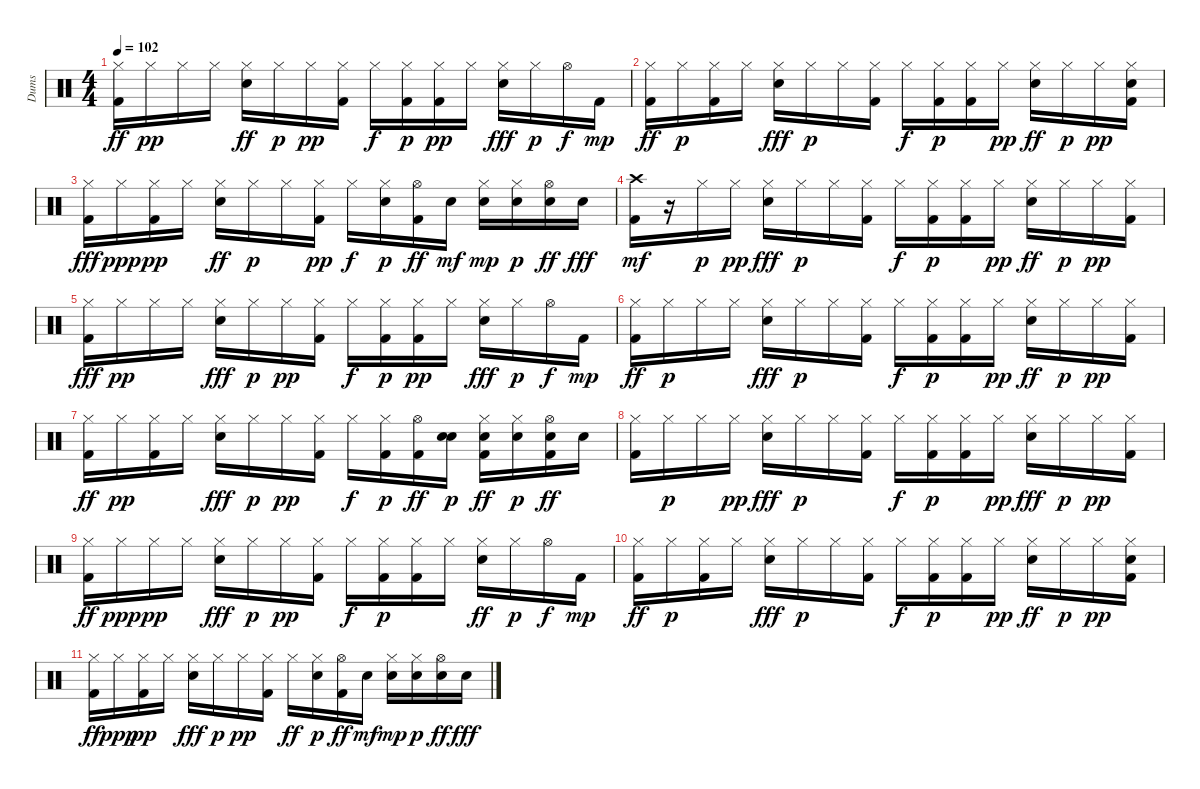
\track ("Dums" "Dums") {instrument percussion}
\staff {score}
\articulation defaults
\ts (4 4)
\tempo 102
\clef neutral
\ks c
("Kick (hit) 2" "Hi-Hat (closed)").16{dy ff} "Hi-Hat (closed)".16{dy pp} "Hi-Hat (closed)".16 "Hi-Hat (closed)".16 ("Electric Snare (hit)" "Hi-Hat (closed)").16{dy ff} "Hi-Hat (closed)".16{dy p} "Hi-Hat (closed)".16{dy pp} ("Kick (hit) 2" "Hi-Hat (closed)").16 "Hi-Hat (closed)".16{dy f} ("Kick (hit) 2" "Hi-Hat (closed)").16{dy p} ("Kick (hit) 2" "Hi-Hat (closed)").16{dy pp} "Hi-Hat (closed)".16 ("Electric Snare (hit)" "Hi-Hat (closed)").16{dy fff} "Hi-Hat (closed)".16{dy p} "Hi-Hat (open)".16{dy f} "Kick (hit) 2".16{dy mp} |
("Kick (hit) 2" "Hi-Hat (closed)").16{dy ff} "Hi-Hat (closed)".16{dy p} ("Kick (hit) 2" "Hi-Hat (closed)").16 "Hi-Hat (closed)".16 ("Electric Snare (hit)" "Hi-Hat (closed)").16{dy fff} "Hi-Hat (closed)".16{dy p} "Hi-Hat (closed)".16 ("Kick (hit) 2" "Hi-Hat (closed)").16 "Hi-Hat (closed)".16{dy f} ("Kick (hit) 2" "Hi-Hat (closed)").16{dy p} ("Kick (hit) 2" "Hi-Hat (closed)").16 "Hi-Hat (closed)".16{dy pp} ("Electric Snare (hit)" "Hi-Hat (closed)").16{dy ff} "Hi-Hat (closed)".16{dy p} "Hi-Hat (closed)".16{dy pp} ("Kick (hit) 2" "Electric Snare (hit)" "Hi-Hat (closed)").16 |
("Kick (hit) 2" "Hi-Hat (closed)").16{dy fff} "Hi-Hat (closed)".16{dy ppp} ("Kick (hit) 2" "Hi-Hat (closed)").16{dy pp} "Hi-Hat (closed)".16 ("Electric Snare (hit)" "Hi-Hat (closed)").16{dy ff} "Hi-Hat (closed)".16{dy p} "Hi-Hat (closed)".16 ("Kick (hit) 2" "Hi-Hat (closed)").16{dy pp} "Hi-Hat (closed)".16{dy f} ("Electric Snare (hit)" "Hi-Hat (closed)").16{dy p} ("Kick (hit) 2" "Hi-Hat (open)").16{dy ff} "Electric Snare (hit)".16{dy mf} ("Electric Snare (hit)" "Hi-Hat (closed)").16{dy mp} ("Electric Snare (hit)" "Hi-Hat (closed)").16{dy p} ("Electric Snare (hit)" "Hi-Hat (open)").16{dy ff} "Electric Snare (hit)".16{dy fff} |
("Kick (hit) 2" "Crash high (hit)").16{dy mf} r.16 "Hi-Hat (closed)".16{dy p} "Hi-Hat (closed)".16{dy pp} ("Electric Snare (hit)" "Hi-Hat (closed)").16{dy fff} "Hi-Hat (closed)".16{dy p} "Hi-Hat (closed)".16 ("Kick (hit) 2" "Hi-Hat (closed)").16 "Hi-Hat (closed)".16{dy f} ("Kick (hit) 2" "Hi-Hat (closed)").16{dy p} ("Kick (hit) 2" "Hi-Hat (closed)").16 "Hi-Hat (closed)".16{dy pp} ("Electric Snare (hit)" "Hi-Hat (closed)").16{dy ff} "Hi-Hat (closed)".16{dy p} "Hi-Hat (closed)".16{dy pp} ("Kick (hit) 2" "Hi-Hat (closed)").16 |
("Kick (hit) 2" "Hi-Hat (closed)").16{dy fff} "Hi-Hat (closed)".16{dy pp} "Hi-Hat (closed)".16 "Hi-Hat (closed)".16 ("Electric Snare (hit)" "Hi-Hat (closed)").16{dy fff} "Hi-Hat (closed)".16{dy p} "Hi-Hat (closed)".16{dy pp} ("Kick (hit) 2" "Hi-Hat (closed)").16 "Hi-Hat (closed)".16{dy f} ("Kick (hit) 2" "Hi-Hat (closed)").16{dy p} ("Kick (hit) 2" "Hi-Hat (closed)").16{dy pp} "Hi-Hat (closed)".16 ("Electric Snare (hit)" "Hi-Hat (closed)").16{dy fff} "Hi-Hat (closed)".16{dy p} "Hi-Hat (open)".16{dy f} "Kick (hit) 2".16{dy mp} |
("Kick (hit) 2" "Hi-Hat (closed)").16{dy ff} "Hi-Hat (closed)".16{dy p} "Hi-Hat (closed)".16 "Hi-Hat (closed)".16 ("Electric Snare (hit)" "Hi-Hat (closed)").16{dy fff} "Hi-Hat (closed)".16{dy p} "Hi-Hat (closed)".16 ("Kick (hit) 2" "Hi-Hat (closed)").16 "Hi-Hat (closed)".16{dy f} ("Kick (hit) 2" "Hi-Hat (closed)").16{dy p} ("Kick (hit) 2" "Hi-Hat (closed)").16 "Hi-Hat (closed)".16{dy pp} ("Electric Snare (hit)" "Hi-Hat (closed)").16{dy ff} "Hi-Hat (closed)".16{dy p} "Hi-Hat (closed)".16{dy pp} ("Kick (hit) 2" "Hi-Hat (closed)").16 |
("Kick (hit) 2" "Hi-Hat (closed)").16{dy ff} "Hi-Hat (closed)".16{dy pp} ("Kick (hit) 2" "Hi-Hat (closed)").16 "Hi-Hat (closed)".16 ("Electric Snare (hit)" "Hi-Hat (closed)").16{dy fff} "Hi-Hat (closed)".16{dy p} "Hi-Hat (closed)".16{dy pp} ("Kick (hit) 2" "Hi-Hat (closed)").16 "Hi-Hat (closed)".16{dy f} ("Kick (hit) 2" "Hi-Hat (closed)").16{dy p} ("Kick (hit) 2" "Hi-Hat (open)").16{dy ff} ("Electric Snare (hit)" "Electric Snare (hit)").16{dy p} ("Kick (hit) 2" "Electric Snare (hit)" "Hi-Hat (closed)").16{dy ff} ("Electric Snare (hit)" "Hi-Hat (closed)").16{dy p} ("Kick (hit) 2" "Electric Snare (hit)" "Hi-Hat (open)").16{dy ff} "Electric Snare (hit)".16 |
("Kick (hit) 2" "Hi-Hat (closed)").16 "Hi-Hat (closed)".16{dy p} "Hi-Hat (closed)".16 "Hi-Hat (closed)".16{dy pp} ("Electric Snare (hit)" "Hi-Hat (closed)").16{dy fff} "Hi-Hat (closed)".16{dy p} "Hi-Hat (closed)".16 ("Kick (hit) 2" "Hi-Hat (closed)").16 "Hi-Hat (closed)".16{dy f} ("Kick (hit) 2" "Hi-Hat (closed)").16{dy p} ("Kick (hit) 2" "Hi-Hat (closed)").16 "Hi-Hat (closed)".16{dy pp} ("Electric Snare (hit)" "Hi-Hat (closed)").16{dy fff} "Hi-Hat (closed)".16{dy p} "Hi-Hat (closed)".16{dy pp} ("Kick (hit) 2" "Hi-Hat (closed)").16 |
("Kick (hit) 2" "Hi-Hat (closed)").16{dy ff} "Hi-Hat (closed)".16{dy ppp} "Hi-Hat (closed)".16{dy pp} "Hi-Hat (closed)".16 ("Electric Snare (hit)" "Hi-Hat (closed)").16{dy fff} "Hi-Hat (closed)".16{dy p} "Hi-Hat (closed)".16{dy pp} ("Kick (hit) 2" "Hi-Hat (closed)").16 "Hi-Hat (closed)".16{dy f} ("Kick (hit) 2" "Hi-Hat (closed)").16{dy p} ("Kick (hit) 2" "Hi-Hat (closed)").16 "Hi-Hat (closed)".16 ("Electric Snare (hit)" "Hi-Hat (closed)").16{dy ff} "Hi-Hat (closed)".16{dy p} "Hi-Hat (open)".16{dy f} "Kick (hit) 2".16{dy mp} |
("Kick (hit) 2" "Hi-Hat (closed)").16{dy ff} "Hi-Hat (closed)".16{dy p} ("Kick (hit) 2" "Hi-Hat (closed)").16 "Hi-Hat (closed)".16 ("Electric Snare (hit)" "Hi-Hat (closed)").16{dy fff} "Hi-Hat (closed)".16{dy p} "Hi-Hat (closed)".16 ("Kick (hit) 2" "Hi-Hat (closed)").16 "Hi-Hat (closed)".16{dy f} ("Kick (hit) 2" "Hi-Hat (closed)").16{dy p} ("Kick (hit) 2" "Hi-Hat (closed)").16 "Hi-Hat (closed)".16{dy pp} ("Electric Snare (hit)" "Hi-Hat (closed)").16{dy ff} "Hi-Hat (closed)".16{dy p} "Hi-Hat (closed)".16{dy pp} ("Kick (hit) 2" "Electric Snare (hit)" "Hi-Hat (closed)").16 |
("Kick (hit) 2" "Hi-Hat (closed)").16{dy ff} "Hi-Hat (closed)".16{dy ppp} ("Kick (hit) 2" "Hi-Hat (closed)").16{dy pp} "Hi-Hat (closed)".16 ("Electric Snare (hit)" "Hi-Hat (closed)").16{dy fff} "Hi-Hat (closed)".16{dy p} "Hi-Hat (closed)".16{dy pp} ("Kick (hit) 2" "Hi-Hat (closed)").16 "Hi-Hat (closed)".16{dy ff} ("Electric Snare (hit)" "Hi-Hat (closed)").16{dy p} ("Kick (hit) 2" "Hi-Hat (open)").16{dy ff} "Electric Snare (hit)".16{dy mf} ("Electric Snare (hit)" "Hi-Hat (closed)").16{dy mp} ("Electric Snare (hit)" "Hi-Hat (closed)").16{dy p} ("Electric Snare (hit)" "Hi-Hat (open)").16{dy ff} "Electric Snare (hit)".16{dy fff}
